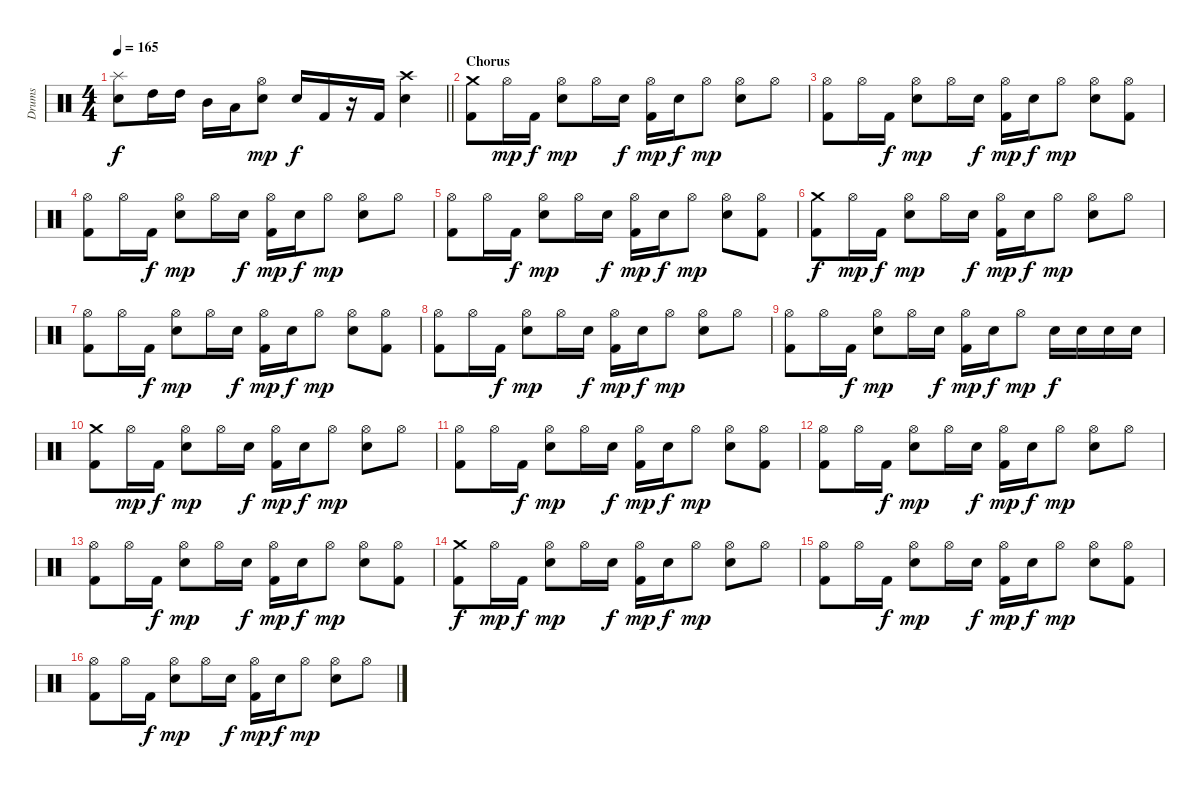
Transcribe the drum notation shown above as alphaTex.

\track ("Drums" "Drums") {instrument percussion}
\staff {score}
\articulation defaults
\ts (4 4)
\tempo 165
\clef neutral
\barLineRight lightlight
\ks c
("Splash (hit)" "Snare (hit) 2").8{dy f} "High Tom (hit)".16 "High Tom (hit)".16 "Mid Tom (hit)".16 "Low Tom (hit)".16 ("Hi-Hat (open)" "Snare (hit) 2").8{dy mp} "Snare (hit) 2".16{dy f} "Kick (hit) 2".16 r.16 "Kick (hit) 2".16 ("Crash high (hit)" "Snare (hit) 2").4 |
\section ("" "Chorus")
("Crash medium (hit)" "Kick (hit) 2").8 "Hi-Hat (open)".16{dy mp} "Kick (hit) 2".16{dy f} ("Hi-Hat (open)" "Snare (hit) 2").8{dy mp} "Hi-Hat (open)".16 "Snare (hit) 2".16{dy f} ("Hi-Hat (open)" "Kick (hit) 2").16{dy mp} "Snare (hit) 2".16{dy f} "Hi-Hat (open)".8{dy mp} ("Hi-Hat (open)" "Snare (hit) 2").8 "Hi-Hat (open)".8 |
("Hi-Hat (open)" "Kick (hit) 2").8 "Hi-Hat (open)".16 "Kick (hit) 2".16{dy f} ("Hi-Hat (open)" "Snare (hit) 2").8{dy mp} "Hi-Hat (open)".16 "Snare (hit) 2".16{dy f} ("Hi-Hat (open)" "Kick (hit) 2").16{dy mp} "Snare (hit) 2".16{dy f} "Hi-Hat (open)".8{dy mp} ("Hi-Hat (open)" "Snare (hit) 2").8 ("Hi-Hat (open)" "Kick (hit) 2").8 |
("Hi-Hat (open)" "Kick (hit) 2").8 "Hi-Hat (open)".16 "Kick (hit) 2".16{dy f} ("Hi-Hat (open)" "Snare (hit) 2").8{dy mp} "Hi-Hat (open)".16 "Snare (hit) 2".16{dy f} ("Hi-Hat (open)" "Kick (hit) 2").16{dy mp} "Snare (hit) 2".16{dy f} "Hi-Hat (open)".8{dy mp} ("Hi-Hat (open)" "Snare (hit) 2").8 "Hi-Hat (open)".8 |
("Hi-Hat (open)" "Kick (hit) 2").8 "Hi-Hat (open)".16 "Kick (hit) 2".16{dy f} ("Hi-Hat (open)" "Snare (hit) 2").8{dy mp} "Hi-Hat (open)".16 "Snare (hit) 2".16{dy f} ("Hi-Hat (open)" "Kick (hit) 2").16{dy mp} "Snare (hit) 2".16{dy f} "Hi-Hat (open)".8{dy mp} ("Hi-Hat (open)" "Snare (hit) 2").8 ("Hi-Hat (open)" "Kick (hit) 2").8 |
("Crash medium (hit)" "Kick (hit) 2").8{dy f} "Hi-Hat (open)".16{dy mp} "Kick (hit) 2".16{dy f} ("Hi-Hat (open)" "Snare (hit) 2").8{dy mp} "Hi-Hat (open)".16 "Snare (hit) 2".16{dy f} ("Hi-Hat (open)" "Kick (hit) 2").16{dy mp} "Snare (hit) 2".16{dy f} "Hi-Hat (open)".8{dy mp} ("Hi-Hat (open)" "Snare (hit) 2").8 "Hi-Hat (open)".8 |
("Hi-Hat (open)" "Kick (hit) 2").8 "Hi-Hat (open)".16 "Kick (hit) 2".16{dy f} ("Hi-Hat (open)" "Snare (hit) 2").8{dy mp} "Hi-Hat (open)".16 "Snare (hit) 2".16{dy f} ("Hi-Hat (open)" "Kick (hit) 2").16{dy mp} "Snare (hit) 2".16{dy f} "Hi-Hat (open)".8{dy mp} ("Hi-Hat (open)" "Snare (hit) 2").8 ("Hi-Hat (open)" "Kick (hit) 2").8 |
("Hi-Hat (open)" "Kick (hit) 2").8 "Hi-Hat (open)".16 "Kick (hit) 2".16{dy f} ("Hi-Hat (open)" "Snare (hit) 2").8{dy mp} "Hi-Hat (open)".16 "Snare (hit) 2".16{dy f} ("Hi-Hat (open)" "Kick (hit) 2").16{dy mp} "Snare (hit) 2".16{dy f} "Hi-Hat (open)".8{dy mp} ("Hi-Hat (open)" "Snare (hit) 2").8 "Hi-Hat (open)".8 |
("Hi-Hat (open)" "Kick (hit) 2").8 "Hi-Hat (open)".16 "Kick (hit) 2".16{dy f} ("Hi-Hat (open)" "Snare (hit) 2").8{dy mp} "Hi-Hat (open)".16 "Snare (hit) 2".16{dy f} ("Hi-Hat (open)" "Kick (hit) 2").16{dy mp} "Snare (hit) 2".16{dy f} "Hi-Hat (open)".8{dy mp} "Snare (hit) 2".16{dy f} "Snare (hit) 2".16 "Snare (hit) 2".16 "Snare (hit) 2".16 |
("Crash medium (hit)" "Kick (hit) 2").8 "Hi-Hat (open)".16{dy mp} "Kick (hit) 2".16{dy f} ("Hi-Hat (open)" "Snare (hit) 2").8{dy mp} "Hi-Hat (open)".16 "Snare (hit) 2".16{dy f} ("Hi-Hat (open)" "Kick (hit) 2").16{dy mp} "Snare (hit) 2".16{dy f} "Hi-Hat (open)".8{dy mp} ("Hi-Hat (open)" "Snare (hit) 2").8 "Hi-Hat (open)".8 |
("Hi-Hat (open)" "Kick (hit) 2").8 "Hi-Hat (open)".16 "Kick (hit) 2".16{dy f} ("Hi-Hat (open)" "Snare (hit) 2").8{dy mp} "Hi-Hat (open)".16 "Snare (hit) 2".16{dy f} ("Hi-Hat (open)" "Kick (hit) 2").16{dy mp} "Snare (hit) 2".16{dy f} "Hi-Hat (open)".8{dy mp} ("Hi-Hat (open)" "Snare (hit) 2").8 ("Hi-Hat (open)" "Kick (hit) 2").8 |
("Hi-Hat (open)" "Kick (hit) 2").8 "Hi-Hat (open)".16 "Kick (hit) 2".16{dy f} ("Hi-Hat (open)" "Snare (hit) 2").8{dy mp} "Hi-Hat (open)".16 "Snare (hit) 2".16{dy f} ("Hi-Hat (open)" "Kick (hit) 2").16{dy mp} "Snare (hit) 2".16{dy f} "Hi-Hat (open)".8{dy mp} ("Hi-Hat (open)" "Snare (hit) 2").8 "Hi-Hat (open)".8 |
("Hi-Hat (open)" "Kick (hit) 2").8 "Hi-Hat (open)".16 "Kick (hit) 2".16{dy f} ("Hi-Hat (open)" "Snare (hit) 2").8{dy mp} "Hi-Hat (open)".16 "Snare (hit) 2".16{dy f} ("Hi-Hat (open)" "Kick (hit) 2").16{dy mp} "Snare (hit) 2".16{dy f} "Hi-Hat (open)".8{dy mp} ("Hi-Hat (open)" "Snare (hit) 2").8 ("Hi-Hat (open)" "Kick (hit) 2").8 |
("Crash medium (hit)" "Kick (hit) 2").8{dy f} "Hi-Hat (open)".16{dy mp} "Kick (hit) 2".16{dy f} ("Hi-Hat (open)" "Snare (hit) 2").8{dy mp} "Hi-Hat (open)".16 "Snare (hit) 2".16{dy f} ("Hi-Hat (open)" "Kick (hit) 2").16{dy mp} "Snare (hit) 2".16{dy f} "Hi-Hat (open)".8{dy mp} ("Hi-Hat (open)" "Snare (hit) 2").8 "Hi-Hat (open)".8 |
("Hi-Hat (open)" "Kick (hit) 2").8 "Hi-Hat (open)".16 "Kick (hit) 2".16{dy f} ("Hi-Hat (open)" "Snare (hit) 2").8{dy mp} "Hi-Hat (open)".16 "Snare (hit) 2".16{dy f} ("Hi-Hat (open)" "Kick (hit) 2").16{dy mp} "Snare (hit) 2".16{dy f} "Hi-Hat (open)".8{dy mp} ("Hi-Hat (open)" "Snare (hit) 2").8 ("Hi-Hat (open)" "Kick (hit) 2").8 |
("Hi-Hat (open)" "Kick (hit) 2").8 "Hi-Hat (open)".16 "Kick (hit) 2".16{dy f} ("Hi-Hat (open)" "Snare (hit) 2").8{dy mp} "Hi-Hat (open)".16 "Snare (hit) 2".16{dy f} ("Hi-Hat (open)" "Kick (hit) 2").16{dy mp} "Snare (hit) 2".16{dy f} "Hi-Hat (open)".8{dy mp} ("Hi-Hat (open)" "Snare (hit) 2").8 "Hi-Hat (open)".8
